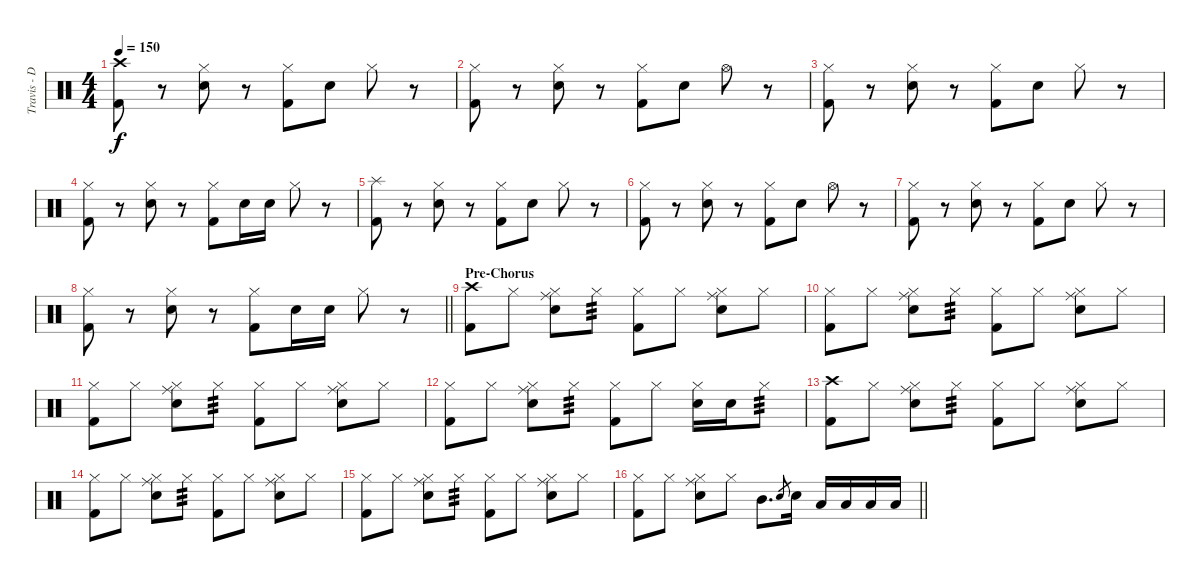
\track ("Travis - Drums" "Travis - D") {instrument percussion}
\staff {score}
\articulation defaults
\ts (4 4)
\tempo 150
\clef neutral
\ks c
("Crash high (hit)" "Kick (hit) 2").8{dy f} r.8 ("Hi-Hat (closed)" "Electric Snare (hit)").8 r.8 ("Hi-Hat (closed)" "Kick (hit) 2").8 "Electric Snare (hit)".8 "Hi-Hat (closed)".8 r.8 |
("Hi-Hat (closed)" "Kick (hit) 2").8 r.8 ("Hi-Hat (closed)" "Electric Snare (hit)").8 r.8 ("Hi-Hat (closed)" "Kick (hit) 2").8 "Electric Snare (hit)".8 "Hi-Hat (open)".8 r.8 |
("Hi-Hat (closed)" "Kick (hit) 2").8 r.8 ("Hi-Hat (closed)" "Electric Snare (hit)").8 r.8 ("Hi-Hat (closed)" "Kick (hit) 2").8 "Electric Snare (hit)".8 "Hi-Hat (closed)".8 r.8 |
("Hi-Hat (closed)" "Kick (hit) 2").8 r.8 ("Hi-Hat (closed)" "Electric Snare (hit)").8 r.8 ("Hi-Hat (closed)" "Kick (hit) 2").8 "Electric Snare (hit)".16 "Electric Snare (hit)".16 "Hi-Hat (closed)".8 r.8 |
("Splash (hit)" "Kick (hit) 2").8 r.8 ("Hi-Hat (closed)" "Electric Snare (hit)").8 r.8 ("Hi-Hat (closed)" "Kick (hit) 2").8 "Electric Snare (hit)".8 "Hi-Hat (closed)".8 r.8 |
("Hi-Hat (closed)" "Kick (hit) 2").8 r.8 ("Hi-Hat (closed)" "Electric Snare (hit)").8 r.8 ("Hi-Hat (closed)" "Kick (hit) 2").8 "Electric Snare (hit)".8 "Hi-Hat (open)".8 r.8 |
("Hi-Hat (closed)" "Kick (hit) 2").8 r.8 ("Hi-Hat (closed)" "Electric Snare (hit)").8 r.8 ("Hi-Hat (closed)" "Kick (hit) 2").8 "Electric Snare (hit)".8 "Hi-Hat (closed)".8 r.8 |
\barLineRight lightlight
("Hi-Hat (closed)" "Kick (hit) 2").8 r.8 ("Hi-Hat (closed)" "Electric Snare (hit)").8 r.8 ("Hi-Hat (closed)" "Kick (hit) 2").8 "Electric Snare (hit)".16 "Electric Snare (hit)".16 "Hi-Hat (closed)".8 r.8 |
\section ("" "Pre-Chorus")
("Crash high (hit)" "Kick (hit) 2").8 "Hi-Hat (closed)".8 ("Hi-Hat (closed)" "Ride (middle)" "Electric Snare (hit)").8 "Hi-Hat (closed)".8{tp 3} ("Hi-Hat (closed)" "Kick (hit) 2").8 "Hi-Hat (closed)".8 ("Hi-Hat (closed)" "Ride (middle)" "Electric Snare (hit)").8 "Hi-Hat (closed)".8 |
("Hi-Hat (closed)" "Kick (hit) 2").8 "Hi-Hat (closed)".8 ("Hi-Hat (closed)" "Ride (middle)" "Electric Snare (hit)").8 "Hi-Hat (closed)".8{tp 3} ("Hi-Hat (closed)" "Kick (hit) 2").8 "Hi-Hat (closed)".8 ("Hi-Hat (closed)" "Ride (middle)" "Electric Snare (hit)").8 "Hi-Hat (closed)".8 |
("Hi-Hat (closed)" "Kick (hit) 2").8 "Hi-Hat (closed)".8 ("Hi-Hat (closed)" "Ride (middle)" "Electric Snare (hit)").8 "Hi-Hat (closed)".8{tp 3} ("Hi-Hat (closed)" "Kick (hit) 2").8 "Hi-Hat (closed)".8 ("Hi-Hat (closed)" "Ride (middle)" "Electric Snare (hit)").8 "Hi-Hat (closed)".8 |
("Hi-Hat (closed)" "Kick (hit) 2").8 "Hi-Hat (closed)".8 ("Hi-Hat (closed)" "Ride (middle)" "Electric Snare (hit)").8 "Hi-Hat (closed)".8{tp 3} ("Hi-Hat (closed)" "Kick (hit) 2").8 "Hi-Hat (closed)".8 ("Hi-Hat (closed)" "Electric Snare (hit)").16 "Electric Snare (hit)".16 "Hi-Hat (closed)".8{tp 3} |
("Crash high (hit)" "Kick (hit) 2").8 "Hi-Hat (closed)".8 ("Hi-Hat (closed)" "Ride (middle)" "Electric Snare (hit)").8 "Hi-Hat (closed)".8{tp 3} ("Hi-Hat (closed)" "Kick (hit) 2").8 "Hi-Hat (closed)".8 ("Hi-Hat (closed)" "Ride (middle)" "Electric Snare (hit)").8 "Hi-Hat (closed)".8 |
("Hi-Hat (closed)" "Kick (hit) 2").8 "Hi-Hat (closed)".8 ("Hi-Hat (closed)" "Ride (middle)" "Electric Snare (hit)").8 "Hi-Hat (closed)".8{tp 3} ("Hi-Hat (closed)" "Kick (hit) 2").8 "Hi-Hat (closed)".8 ("Hi-Hat (closed)" "Ride (middle)" "Electric Snare (hit)").8 "Hi-Hat (closed)".8 |
("Hi-Hat (closed)" "Kick (hit) 2").8 "Hi-Hat (closed)".8 ("Hi-Hat (closed)" "Ride (middle)" "Electric Snare (hit)").8 "Hi-Hat (closed)".8{tp 3} ("Hi-Hat (closed)" "Kick (hit) 2").8 "Hi-Hat (closed)".8 ("Hi-Hat (closed)" "Ride (middle)" "Electric Snare (hit)").8 "Hi-Hat (closed)".8 |
\barLineRight lightlight
("Hi-Hat (closed)" "Kick (hit) 2").8 "Hi-Hat (closed)".8 ("Hi-Hat (closed)" "Ride (middle)" "Electric Snare (hit)").8 "Hi-Hat (closed)".8 "Mid Tom (hit)".8{d} "Electric Snare (hit)".8{gr} "Electric Snare (hit)".16 "Low Tom (hit)".16 "Low Tom (hit)".16 "Low Tom (hit)".16 "Low Tom (hit)".16
